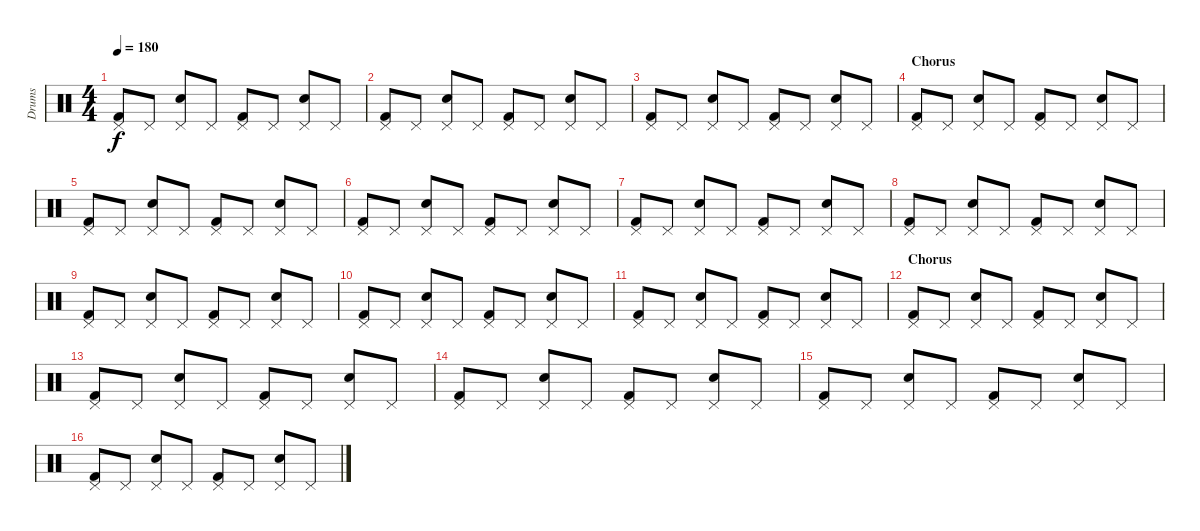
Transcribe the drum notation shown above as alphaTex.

\track ("Drums" "Drums") {instrument percussion}
\staff {score}
\articulation defaults
\ts (4 4)
\tempo 180
\clef neutral
\ks c
("Pedal Hi-Hat (hit)" "Kick (hit) 2").8{dy f} "Pedal Hi-Hat (hit)".8 ("Pedal Hi-Hat (hit)" "Electric Snare (hit)").8 "Pedal Hi-Hat (hit)".8 ("Pedal Hi-Hat (hit)" "Kick (hit) 2").8 "Pedal Hi-Hat (hit)".8 ("Pedal Hi-Hat (hit)" "Electric Snare (hit)").8 "Pedal Hi-Hat (hit)".8 |
("Pedal Hi-Hat (hit)" "Kick (hit) 2").8 "Pedal Hi-Hat (hit)".8 ("Pedal Hi-Hat (hit)" "Electric Snare (hit)").8 "Pedal Hi-Hat (hit)".8 ("Pedal Hi-Hat (hit)" "Kick (hit) 2").8 "Pedal Hi-Hat (hit)".8 ("Pedal Hi-Hat (hit)" "Electric Snare (hit)").8 "Pedal Hi-Hat (hit)".8 |
("Pedal Hi-Hat (hit)" "Kick (hit) 2").8 "Pedal Hi-Hat (hit)".8 ("Pedal Hi-Hat (hit)" "Electric Snare (hit)").8 "Pedal Hi-Hat (hit)".8 ("Pedal Hi-Hat (hit)" "Kick (hit) 2").8 "Pedal Hi-Hat (hit)".8 ("Pedal Hi-Hat (hit)" "Electric Snare (hit)").8 "Pedal Hi-Hat (hit)".8 |
\section ("" "Chorus")
("Pedal Hi-Hat (hit)" "Kick (hit) 2").8 "Pedal Hi-Hat (hit)".8 ("Pedal Hi-Hat (hit)" "Electric Snare (hit)").8 "Pedal Hi-Hat (hit)".8 ("Pedal Hi-Hat (hit)" "Kick (hit) 2").8 "Pedal Hi-Hat (hit)".8 ("Pedal Hi-Hat (hit)" "Electric Snare (hit)").8 "Pedal Hi-Hat (hit)".8 |
("Pedal Hi-Hat (hit)" "Kick (hit) 2").8 "Pedal Hi-Hat (hit)".8 ("Pedal Hi-Hat (hit)" "Electric Snare (hit)").8 "Pedal Hi-Hat (hit)".8 ("Pedal Hi-Hat (hit)" "Kick (hit) 2").8 "Pedal Hi-Hat (hit)".8 ("Pedal Hi-Hat (hit)" "Electric Snare (hit)").8 "Pedal Hi-Hat (hit)".8 |
("Pedal Hi-Hat (hit)" "Kick (hit) 2").8 "Pedal Hi-Hat (hit)".8 ("Pedal Hi-Hat (hit)" "Electric Snare (hit)").8 "Pedal Hi-Hat (hit)".8 ("Pedal Hi-Hat (hit)" "Kick (hit) 2").8 "Pedal Hi-Hat (hit)".8 ("Pedal Hi-Hat (hit)" "Electric Snare (hit)").8 "Pedal Hi-Hat (hit)".8 |
("Pedal Hi-Hat (hit)" "Kick (hit) 2").8 "Pedal Hi-Hat (hit)".8 ("Pedal Hi-Hat (hit)" "Electric Snare (hit)").8 "Pedal Hi-Hat (hit)".8 ("Pedal Hi-Hat (hit)" "Kick (hit) 2").8 "Pedal Hi-Hat (hit)".8 ("Pedal Hi-Hat (hit)" "Electric Snare (hit)").8 "Pedal Hi-Hat (hit)".8 |
("Pedal Hi-Hat (hit)" "Kick (hit) 2").8 "Pedal Hi-Hat (hit)".8 ("Pedal Hi-Hat (hit)" "Electric Snare (hit)").8 "Pedal Hi-Hat (hit)".8 ("Pedal Hi-Hat (hit)" "Kick (hit) 2").8 "Pedal Hi-Hat (hit)".8 ("Pedal Hi-Hat (hit)" "Electric Snare (hit)").8 "Pedal Hi-Hat (hit)".8 |
("Pedal Hi-Hat (hit)" "Kick (hit) 2").8 "Pedal Hi-Hat (hit)".8 ("Pedal Hi-Hat (hit)" "Electric Snare (hit)").8 "Pedal Hi-Hat (hit)".8 ("Pedal Hi-Hat (hit)" "Kick (hit) 2").8 "Pedal Hi-Hat (hit)".8 ("Pedal Hi-Hat (hit)" "Electric Snare (hit)").8 "Pedal Hi-Hat (hit)".8 |
("Pedal Hi-Hat (hit)" "Kick (hit) 2").8 "Pedal Hi-Hat (hit)".8 ("Pedal Hi-Hat (hit)" "Electric Snare (hit)").8 "Pedal Hi-Hat (hit)".8 ("Pedal Hi-Hat (hit)" "Kick (hit) 2").8 "Pedal Hi-Hat (hit)".8 ("Pedal Hi-Hat (hit)" "Electric Snare (hit)").8 "Pedal Hi-Hat (hit)".8 |
("Pedal Hi-Hat (hit)" "Kick (hit) 2").8 "Pedal Hi-Hat (hit)".8 ("Pedal Hi-Hat (hit)" "Electric Snare (hit)").8 "Pedal Hi-Hat (hit)".8 ("Pedal Hi-Hat (hit)" "Kick (hit) 2").8 "Pedal Hi-Hat (hit)".8 ("Pedal Hi-Hat (hit)" "Electric Snare (hit)").8 "Pedal Hi-Hat (hit)".8 |
\section ("" "Chorus")
("Pedal Hi-Hat (hit)" "Kick (hit) 2").8 "Pedal Hi-Hat (hit)".8 ("Pedal Hi-Hat (hit)" "Electric Snare (hit)").8 "Pedal Hi-Hat (hit)".8 ("Pedal Hi-Hat (hit)" "Kick (hit) 2").8 "Pedal Hi-Hat (hit)".8 ("Pedal Hi-Hat (hit)" "Electric Snare (hit)").8 "Pedal Hi-Hat (hit)".8 |
("Pedal Hi-Hat (hit)" "Kick (hit) 2").8 "Pedal Hi-Hat (hit)".8 ("Pedal Hi-Hat (hit)" "Electric Snare (hit)").8 "Pedal Hi-Hat (hit)".8 ("Pedal Hi-Hat (hit)" "Kick (hit) 2").8 "Pedal Hi-Hat (hit)".8 ("Pedal Hi-Hat (hit)" "Electric Snare (hit)").8 "Pedal Hi-Hat (hit)".8 |
("Pedal Hi-Hat (hit)" "Kick (hit) 2").8 "Pedal Hi-Hat (hit)".8 ("Pedal Hi-Hat (hit)" "Electric Snare (hit)").8 "Pedal Hi-Hat (hit)".8 ("Pedal Hi-Hat (hit)" "Kick (hit) 2").8 "Pedal Hi-Hat (hit)".8 ("Pedal Hi-Hat (hit)" "Electric Snare (hit)").8 "Pedal Hi-Hat (hit)".8 |
("Pedal Hi-Hat (hit)" "Kick (hit) 2").8 "Pedal Hi-Hat (hit)".8 ("Pedal Hi-Hat (hit)" "Electric Snare (hit)").8 "Pedal Hi-Hat (hit)".8 ("Pedal Hi-Hat (hit)" "Kick (hit) 2").8 "Pedal Hi-Hat (hit)".8 ("Pedal Hi-Hat (hit)" "Electric Snare (hit)").8 "Pedal Hi-Hat (hit)".8 |
("Pedal Hi-Hat (hit)" "Kick (hit) 2").8 "Pedal Hi-Hat (hit)".8 ("Pedal Hi-Hat (hit)" "Electric Snare (hit)").8 "Pedal Hi-Hat (hit)".8 ("Pedal Hi-Hat (hit)" "Kick (hit) 2").8 "Pedal Hi-Hat (hit)".8 ("Pedal Hi-Hat (hit)" "Electric Snare (hit)").8 "Pedal Hi-Hat (hit)".8
